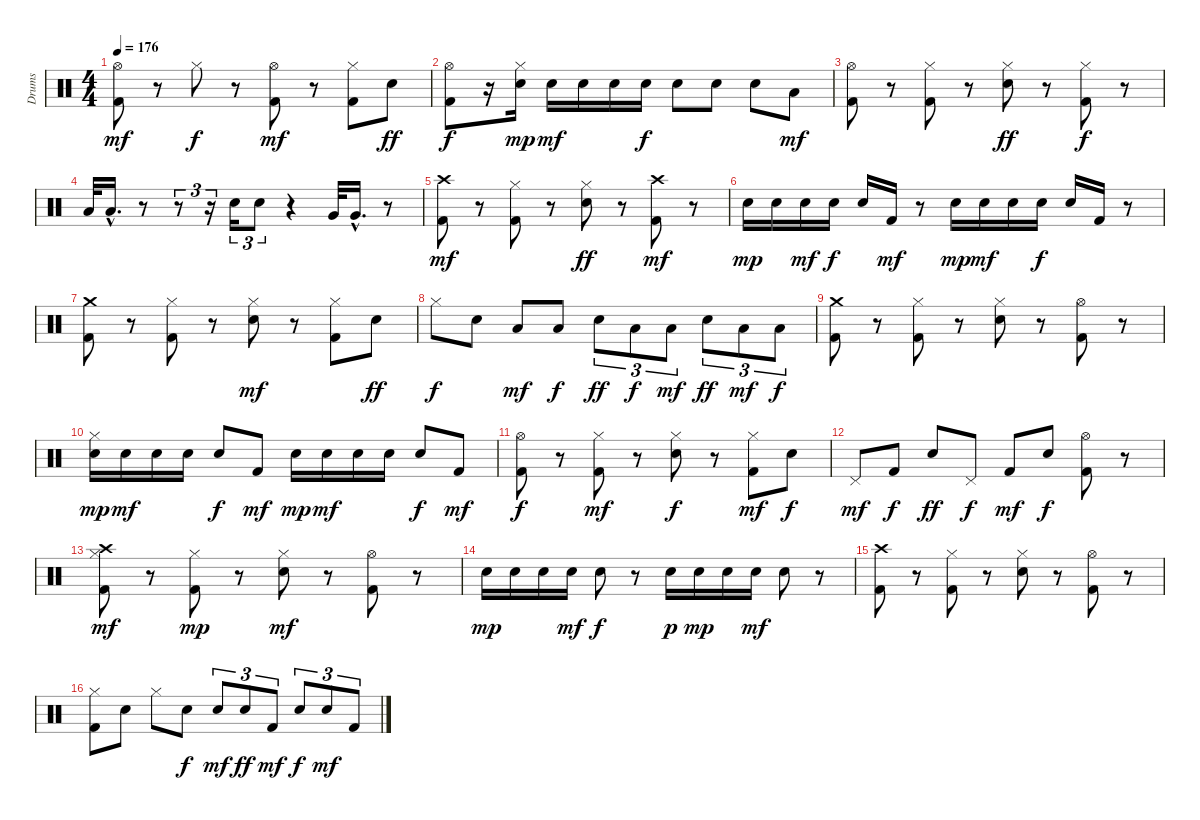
\track ("Drums" "Drums") {instrument percussion}
\staff {score}
\articulation defaults
\ts (4 4)
\tempo 176
\clef neutral
\ks c
("Hi-Hat (open)" "Kick (hit) 2").8{dy mf} r.8 "Hi-Hat (closed)".8{dy f} r.8 ("Hi-Hat (open)" "Kick (hit) 2").8{dy mf} r.8 ("Hi-Hat (closed)" "Kick (hit) 2").8 "Snare (hit) 2".8{dy ff} |
("Hi-Hat (open)" "Kick (hit) 2").8{dy f} r.16 ("Hi-Hat (closed)" "Snare (hit) 2").16{dy mp} "Snare (hit) 2".16{dy mf} "Snare (hit) 2".16 "Snare (hit) 2".16 "Snare (hit) 2".16{dy f} "Snare (hit) 2".8 "Snare (hit) 2".8 "Snare (hit) 2".8 "Low Tom (hit)".8{dy mf} |
("Hi-Hat (open)" "Kick (hit) 2").8 r.8 ("Hi-Hat (closed)" "Kick (hit) 2").8 r.8 ("Hi-Hat (closed)" "Snare (hit) 2").8{dy ff} r.8 ("Hi-Hat (closed)" "Kick (hit) 2").8{dy f} r.8 |
"Low Tom (hit)".32 "Low Tom (hit)"{hac}.16{d} r.8 r.8{tu (3 2)} r.16{tu (3 2)} "Snare (hit) 2".16{tu (3 2)} "Snare (hit) 2".8{tu (3 2)} r.4 "Very Low Tom (hit)".32 "Very Low Tom (hit)"{hac}.16{d} r.8 |
("Crash high (hit)" "Kick (hit) 2").8{dy mf} r.8 ("Hi-Hat (closed)" "Kick (hit) 2").8 r.8 ("Hi-Hat (closed)" "Snare (hit) 2").8{dy ff} r.8 ("Crash high (hit)" "Kick (hit) 2").8{dy mf} r.8 |
"Snare (hit) 2".16{dy mp} "Snare (hit) 2".16 "Snare (hit) 2".16{dy mf} "Snare (hit) 2".16{dy f} "Snare (hit) 2".16 "Kick (hit) 2".16{dy mf} r.8 "Snare (hit) 2".16{dy mp} "Snare (hit) 2".16{dy mf} "Snare (hit) 2".16 "Snare (hit) 2".16{dy f} "Snare (hit) 2".16 "Kick (hit) 2".16 r.8 |
("Crash medium (hit)" "Kick (hit) 2").8 r.8 ("Hi-Hat (closed)" "Kick (hit) 2").8 r.8 ("Hi-Hat (closed)" "Snare (hit) 2").8{dy mf} r.8 ("Hi-Hat (closed)" "Kick (hit) 2").8 "Snare (hit) 2".8{dy ff} |
"Hi-Hat (closed)".8{dy f} "Snare (hit) 2".8 "Low Tom (hit)".8{dy mf} "Low Tom (hit)".8{dy f} "Snare (hit) 2".8{tu (3 2) dy ff} "Low Tom (hit)".8{tu (3 2) dy f} "Low Floor Tom (hit)".8{tu (3 2) dy mf} "Snare (hit) 2".8{tu (3 2) dy ff} "Low Tom (hit)".8{tu (3 2) dy mf} "Low Floor Tom (hit)".8{tu (3 2) dy f} |
("Crash medium (hit)" "Kick (hit) 2").8 r.8 ("Hi-Hat (closed)" "Kick (hit) 2").8 r.8 ("Hi-Hat (closed)" "Snare (hit) 2").8 r.8 ("Hi-Hat (open)" "Kick (hit) 2").8 r.8 |
("Hi-Hat (closed)" "Snare (hit) 2").16{dy mp} "Snare (hit) 2".16{dy mf} "Snare (hit) 2".16 "Snare (hit) 2".16 "Snare (hit) 2".8{dy f} "Kick (hit) 2".8{dy mf} "Snare (hit) 2".16{dy mp} "Snare (hit) 2".16{dy mf} "Snare (hit) 2".16 "Snare (hit) 2".16 "Snare (hit) 2".8{dy f} "Kick (hit) 2".8{dy mf} |
("Hi-Hat (open)" "Kick (hit) 2").8{dy f} r.8 ("Hi-Hat (closed)" "Kick (hit) 2").8{dy mf} r.8 ("Hi-Hat (closed)" "Snare (hit) 2").8{dy f} r.8 ("Hi-Hat (closed)" "Kick (hit) 2").8{dy mf} "Snare (hit) 2".8{dy f} |
"Pedal Hi-Hat (hit)".8{dy mf} "Kick (hit) 2".8{dy f} "Snare (hit) 2".8{dy ff} "Pedal Hi-Hat (hit)".8{dy f} "Kick (hit) 2".8{dy mf balance 8} "Snare (hit) 2".8{dy f balance 10} ("Hi-Hat (open)" "Kick (hit) 2").8{balance 11} r.8 |
("Crash high (hit)" "Hi-Hat (closed)" "Kick (hit) 2").8{dy mf balance 15} r.8 ("Hi-Hat (closed)" "Kick (hit) 2").8{dy mp} r.8 ("Hi-Hat (closed)" "Snare (hit) 2").8{dy mf} r.8 ("Hi-Hat (open)" "Kick (hit) 2").8 r.8 |
"Snare (hit) 2".16{dy mp} "Snare (hit) 2".16 "Snare (hit) 2".16 "Snare (hit) 2".16{dy mf} "Snare (hit) 2".8{dy f} r.8 "Snare (hit) 2".16{dy p} "Snare (hit) 2".16{dy mp} "Snare (hit) 2".16 "Snare (hit) 2".16{dy mf} "Snare (hit) 2".8 r.8 |
("Crash high (hit)" "Kick (hit) 2").8 r.8 ("Hi-Hat (closed)" "Kick (hit) 2").8 r.8 ("Hi-Hat (closed)" "Snare (hit) 2").8 r.8 ("Hi-Hat (open)" "Kick (hit) 2").8 r.8 |
("Hi-Hat (closed)" "Kick (hit) 2").8 "Snare (hit) 2".8 "Hi-Hat (closed)".8 "Snare (hit) 2".8{dy f} "Snare (hit) 2".8{tu (3 2) dy mf} "Snare (hit) 2".8{tu (3 2) dy ff} "Kick (hit) 2".8{tu (3 2) dy mf} "Snare (hit) 2".8{tu (3 2) dy f} "Snare (hit) 2".8{tu (3 2) dy mf} "Kick (hit) 2".8{tu (3 2)}
